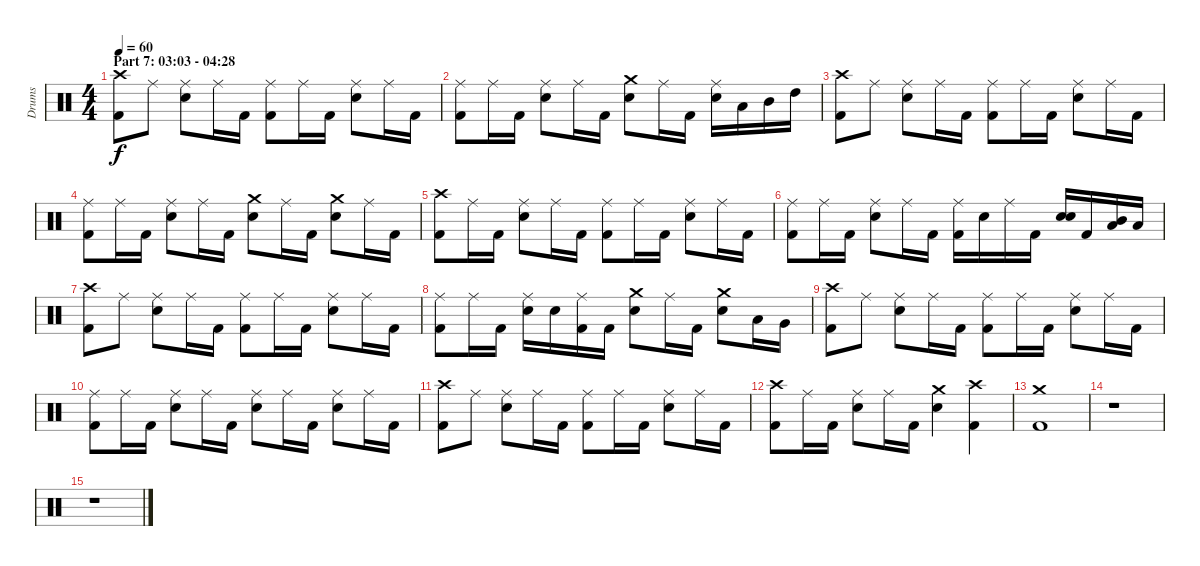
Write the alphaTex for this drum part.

\track ("Drums" "Drums") {instrument percussion}
\staff {score}
\articulation defaults
\ts (4 4)
\section ("" "Part 7: 03:03 - 04:28")
\tempo 60
\clef neutral
\ks c
("Crash high (hit)" "Kick (hit) 2").8{dy f} "Ride (middle)".8 ("Ride (middle)" "Electric Snare (hit)").8 "Ride (middle)".16 "Kick (hit) 2".16 ("Ride (middle)" "Kick (hit) 2").8 "Ride (middle)".16 "Kick (hit) 2".16 ("Ride (middle)" "Electric Snare (hit)").8 "Ride (middle)".16 "Kick (hit) 2".16 |
("Ride (middle)" "Kick (hit) 2").8 "Ride (middle)".16 "Kick (hit) 2".16 ("Ride (middle)" "Electric Snare (hit)").8 "Ride (middle)".16 "Kick (hit) 2".16 ("Crash medium (hit)" "Electric Snare (hit)").8 "Ride (middle)".16 "Kick (hit) 2".16 ("Ride (middle)" "Electric Snare (hit)").16 "Low Tom (hit)".16 "Mid Tom (hit)".16 "High Tom (hit)".16 |
("Crash high (hit)" "Kick (hit) 2").8 "Ride (middle)".8 ("Ride (middle)" "Electric Snare (hit)").8 "Ride (middle)".16 "Kick (hit) 2".16 ("Ride (middle)" "Kick (hit) 2").8 "Ride (middle)".16 "Kick (hit) 2".16 ("Ride (middle)" "Electric Snare (hit)").8 "Ride (middle)".16 "Kick (hit) 2".16 |
("Ride (middle)" "Kick (hit) 2").8 "Ride (middle)".16 "Kick (hit) 2".16 ("Ride (middle)" "Electric Snare (hit)").8 "Ride (middle)".16 "Kick (hit) 2".16 ("Crash medium (hit)" "Electric Snare (hit)").8 "Ride (middle)".16 "Kick (hit) 2".16 ("Crash medium (hit)" "Electric Snare (hit)").8 "Ride (middle)".16 "Kick (hit) 2".16 |
("Crash high (hit)" "Kick (hit) 2").8 "Ride (middle)".16 "Kick (hit) 2".16 ("Ride (middle)" "Electric Snare (hit)").8 "Ride (middle)".16 "Kick (hit) 2".16 ("Ride (middle)" "Kick (hit) 2").8 "Ride (middle)".16 "Kick (hit) 2".16 ("Ride (middle)" "Electric Snare (hit)").8 "Ride (middle)".16 "Kick (hit) 2".16 |
("Ride (middle)" "Kick (hit) 2").8 "Ride (middle)".16 "Kick (hit) 2".16 ("Ride (middle)" "Electric Snare (hit)").8 "Ride (middle)".16 "Kick (hit) 2".16 ("Ride (middle)" "Kick (hit) 2").16 "Electric Snare (hit)".16 "Ride (middle)".16 "Kick (hit) 2".16 ("Electric Snare (hit)" "Electric Snare (hit)").16{bd 60} "Kick (hit) 2".16 ("Mid Tom (hit)" "Low Tom (hit)").16{bd 60} "Low Tom (hit)".16 |
("Crash high (hit)" "Kick (hit) 2").8 "Ride (middle)".8 ("Ride (middle)" "Electric Snare (hit)").8 "Ride (middle)".16 "Kick (hit) 2".16 ("Ride (middle)" "Kick (hit) 2").8 "Ride (middle)".16 "Kick (hit) 2".16 ("Ride (middle)" "Electric Snare (hit)").8 "Ride (middle)".16 "Kick (hit) 2".16 |
("Ride (middle)" "Kick (hit) 2").8 "Ride (middle)".16 "Kick (hit) 2".16 ("Ride (middle)" "Electric Snare (hit)").16 "Electric Snare (hit)".16 ("Ride (middle)" "Kick (hit) 2").16 "Kick (hit) 2".16 ("Crash medium (hit)" "Electric Snare (hit)").8 "Ride (middle)".16 "Kick (hit) 2".16 ("Crash medium (hit)" "Electric Snare (hit)").8 "Low Tom (hit)".16 "Very Low Tom (hit)".16 |
("Crash high (hit)" "Kick (hit) 2").8 "Ride (middle)".8 ("Ride (middle)" "Electric Snare (hit)").8 "Ride (middle)".16 "Kick (hit) 2".16 ("Ride (middle)" "Kick (hit) 2").8 "Ride (middle)".16 "Kick (hit) 2".16 ("Ride (middle)" "Electric Snare (hit)").8 "Ride (middle)".16 "Kick (hit) 2".16 |
("Ride (middle)" "Kick (hit) 2").8 "Ride (middle)".16 "Kick (hit) 2".16 ("Ride (middle)" "Electric Snare (hit)").8 "Ride (middle)".16 "Kick (hit) 2".16 ("Ride (middle)" "Electric Snare (hit)").8 "Ride (middle)".16 "Kick (hit) 2".16 ("Ride (middle)" "Electric Snare (hit)").8 "Ride (middle)".16 "Kick (hit) 2".16 |
("Crash high (hit)" "Kick (hit) 2").8 "Ride (middle)".8 ("Ride (middle)" "Electric Snare (hit)").8 "Ride (middle)".16 "Kick (hit) 2".16 ("Ride (middle)" "Kick (hit) 2").8 "Ride (middle)".16 "Kick (hit) 2".16 ("Ride (middle)" "Electric Snare (hit)").8 "Ride (middle)".16 "Kick (hit) 2".16 |
("Crash high (hit)" "Kick (hit) 2").8 "Ride (middle)".16 "Kick (hit) 2".16 ("Ride (middle)" "Electric Snare (hit)").8 "Ride (middle)".16 "Kick (hit) 2".16 ("Crash medium (hit)" "Electric Snare (hit)").4 ("Crash high (hit)" "Kick (hit) 2").4 |
("Crash medium (hit)" "Kick (hit) 2").1 |
r.1 |
r.1
